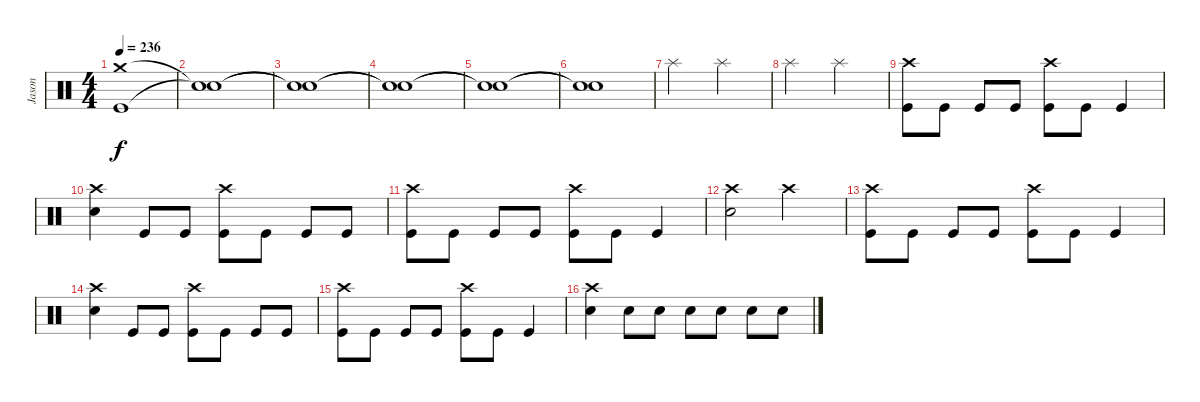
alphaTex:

\track ("Jason" "Jason") {instrument percussion}
\staff {score}
\articulation defaults
\ts (4 4)
\tempo 236
\clef neutral
\ks c
("Crash medium (hit)" "Kick (hit)").1{dy f} |
("Snare (hit)"{t} "Snare (hit)"{t}).1 |
("Snare (hit)"{t} "Snare (hit)"{t}).1 |
("Snare (hit)"{t} "Snare (hit)"{t}).1 |
("Snare (hit)"{t} "Snare (hit)"{t}).1 |
("Snare (hit)"{t} "Snare (hit)"{t}).1 |
"Splash (hit)".2 "Splash (hit)".2 |
"Splash (hit)".2 "Splash (hit)".2 |
("Crash high (hit)" "Kick (hit)").8 "Kick (hit)".8 "Kick (hit)".8 "Kick (hit)".8 ("Crash high (hit)" "Kick (hit)").8 "Kick (hit)".8 "Kick (hit)".4 |
("Crash high (hit)" "Electric Snare (hit)").4 "Kick (hit)".8 "Kick (hit)".8 ("Crash high (hit)" "Kick (hit)").8 "Kick (hit)".8 "Kick (hit)".8 "Kick (hit)".8 |
("Crash high (hit)" "Kick (hit)").8 "Kick (hit)".8 "Kick (hit)".8 "Kick (hit)".8 ("Crash high (hit)" "Kick (hit)").8 "Kick (hit)".8 "Kick (hit)".4 |
("Crash high (hit)" "Electric Snare (hit)").2 "Crash high (hit)".2 |
("Crash high (hit)" "Kick (hit)").8 "Kick (hit)".8 "Kick (hit)".8 "Kick (hit)".8 ("Crash high (hit)" "Kick (hit)").8 "Kick (hit)".8 "Kick (hit)".4 |
("Crash high (hit)" "Electric Snare (hit)").4 "Kick (hit)".8 "Kick (hit)".8 ("Crash high (hit)" "Kick (hit)").8 "Kick (hit)".8 "Kick (hit)".8 "Kick (hit)".8 |
("Crash high (hit)" "Kick (hit)").8 "Kick (hit)".8 "Kick (hit)".8 "Kick (hit)".8 ("Crash high (hit)" "Kick (hit)").8 "Kick (hit)".8 "Kick (hit)".4 |
("Crash high (hit)" "Electric Snare (hit)").4 "Electric Snare (hit)".8 "Electric Snare (hit)".8 "Electric Snare (hit)".8 "Electric Snare (hit)".8 "Electric Snare (hit)".8 "Electric Snare (hit)".8
